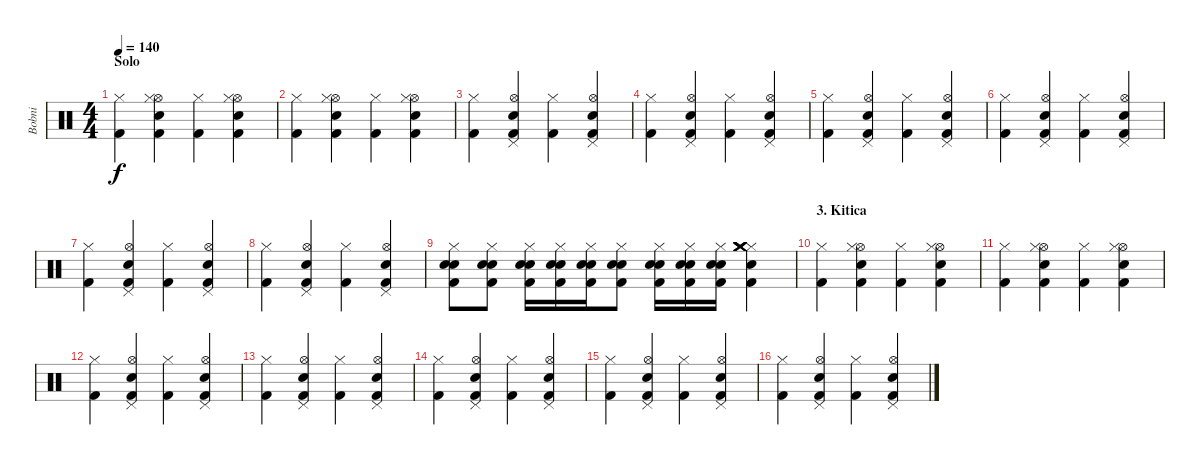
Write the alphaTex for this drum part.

\track ("Bobni" "Bobni") {instrument percussion}
\staff {score}
\articulation defaults
\ts (4 4)
\section ("" "Solo")
\tempo 140
\clef neutral
\ks c
("Hi-Hat (closed)" "Kick (hit) 2").4{dy f} ("Hi-Hat (open)" "Snare (hit) 2" "Hi-Hat (closed)" "Kick (hit) 2").4 ("Hi-Hat (closed)" "Kick (hit) 2").4 ("Hi-Hat (open)" "Snare (hit) 2" "Hi-Hat (closed)" "Kick (hit) 2").4 |
("Hi-Hat (closed)" "Kick (hit) 2").4 ("Hi-Hat (open)" "Snare (hit) 2" "Hi-Hat (closed)" "Kick (hit) 2").4 ("Hi-Hat (closed)" "Kick (hit) 2").4 ("Hi-Hat (open)" "Snare (hit) 2" "Hi-Hat (closed)" "Kick (hit) 2").4 |
("Hi-Hat (closed)" "Kick (hit) 2").4 ("Hi-Hat (open)" "Snare (hit) 2" "Pedal Hi-Hat (hit)" "Kick (hit) 2").4 ("Hi-Hat (closed)" "Kick (hit) 2").4 ("Hi-Hat (open)" "Snare (hit) 2" "Pedal Hi-Hat (hit)" "Kick (hit) 2").4 |
("Hi-Hat (closed)" "Kick (hit) 2").4 ("Hi-Hat (open)" "Snare (hit) 2" "Pedal Hi-Hat (hit)" "Kick (hit) 2").4 ("Hi-Hat (closed)" "Kick (hit) 2").4 ("Hi-Hat (open)" "Snare (hit) 2" "Pedal Hi-Hat (hit)" "Kick (hit) 2").4 |
("Hi-Hat (closed)" "Kick (hit) 2").4 ("Hi-Hat (open)" "Snare (hit) 2" "Pedal Hi-Hat (hit)" "Kick (hit) 2").4 ("Hi-Hat (closed)" "Kick (hit) 2").4 ("Hi-Hat (open)" "Snare (hit) 2" "Pedal Hi-Hat (hit)" "Kick (hit) 2").4 |
("Hi-Hat (closed)" "Kick (hit) 2").4 ("Hi-Hat (open)" "Snare (hit) 2" "Pedal Hi-Hat (hit)" "Kick (hit) 2").4 ("Hi-Hat (closed)" "Kick (hit) 2").4 ("Hi-Hat (open)" "Snare (hit) 2" "Pedal Hi-Hat (hit)" "Kick (hit) 2").4 |
("Hi-Hat (closed)" "Kick (hit) 2").4 ("Hi-Hat (open)" "Snare (hit) 2" "Pedal Hi-Hat (hit)" "Kick (hit) 2").4 ("Hi-Hat (closed)" "Kick (hit) 2").4 ("Hi-Hat (open)" "Snare (hit) 2" "Pedal Hi-Hat (hit)" "Kick (hit) 2").4 |
("Hi-Hat (closed)" "Kick (hit) 2").4 ("Hi-Hat (open)" "Snare (hit) 2" "Pedal Hi-Hat (hit)" "Kick (hit) 2").4 ("Hi-Hat (closed)" "Kick (hit) 2").4 ("Hi-Hat (open)" "Snare (hit) 2" "Pedal Hi-Hat (hit)" "Kick (hit) 2").4 |
("Hi-Hat (closed)" "Snare (hit) 2" "Snare (hit) 2" "Kick (hit) 2").8 ("Hi-Hat (closed)" "Snare (hit) 2" "Snare (hit) 2" "Kick (hit) 2").8 ("Hi-Hat (closed)" "Snare (hit) 2" "Snare (hit) 2" "Kick (hit) 2").16 ("Hi-Hat (closed)" "Snare (hit) 2" "Snare (hit) 2" "Kick (hit) 2").16 ("Hi-Hat (closed)" "Snare (hit) 2" "Snare (hit) 2" "Kick (hit) 2").16 ("Hi-Hat (closed)" "Snare (hit) 2" "Snare (hit) 2" "Kick (hit) 2").8 ("Hi-Hat (closed)" "Snare (hit) 2" "Snare (hit) 2" "Kick (hit) 2").16 ("Hi-Hat (closed)" "Snare (hit) 2" "Snare (hit) 2" "Kick (hit) 2").16 ("Hi-Hat (closed)" "Snare (hit) 2" "Snare (hit) 2" "Kick (hit) 2").16 ("Hi-Hat (closed)" "Crash medium (hit)" "Snare (hit) 2" "Crash medium (hit)" "Crash medium (hit)" "Kick (hit) 2").4 |
\section ("" "3. Kitica")
("Hi-Hat (closed)" "Kick (hit) 2").4 ("Hi-Hat (open)" "Snare (hit) 2" "Hi-Hat (closed)" "Kick (hit) 2").4 ("Hi-Hat (closed)" "Kick (hit) 2").4 ("Hi-Hat (open)" "Snare (hit) 2" "Hi-Hat (closed)" "Kick (hit) 2").4 |
("Hi-Hat (closed)" "Kick (hit) 2").4 ("Hi-Hat (open)" "Snare (hit) 2" "Hi-Hat (closed)" "Kick (hit) 2").4 ("Hi-Hat (closed)" "Kick (hit) 2").4 ("Hi-Hat (open)" "Snare (hit) 2" "Hi-Hat (closed)" "Kick (hit) 2").4 |
("Hi-Hat (closed)" "Kick (hit) 2").4 ("Hi-Hat (open)" "Snare (hit) 2" "Pedal Hi-Hat (hit)" "Kick (hit) 2").4 ("Hi-Hat (closed)" "Kick (hit) 2").4 ("Hi-Hat (open)" "Snare (hit) 2" "Pedal Hi-Hat (hit)" "Kick (hit) 2").4 |
("Hi-Hat (closed)" "Kick (hit) 2").4 ("Hi-Hat (open)" "Snare (hit) 2" "Pedal Hi-Hat (hit)" "Kick (hit) 2").4 ("Hi-Hat (closed)" "Kick (hit) 2").4 ("Hi-Hat (open)" "Snare (hit) 2" "Pedal Hi-Hat (hit)" "Kick (hit) 2").4 |
("Hi-Hat (closed)" "Kick (hit) 2").4 ("Hi-Hat (open)" "Snare (hit) 2" "Pedal Hi-Hat (hit)" "Kick (hit) 2").4 ("Hi-Hat (closed)" "Kick (hit) 2").4 ("Hi-Hat (open)" "Snare (hit) 2" "Pedal Hi-Hat (hit)" "Kick (hit) 2").4 |
("Hi-Hat (closed)" "Kick (hit) 2").4 ("Hi-Hat (open)" "Snare (hit) 2" "Pedal Hi-Hat (hit)" "Kick (hit) 2").4 ("Hi-Hat (closed)" "Kick (hit) 2").4 ("Hi-Hat (open)" "Snare (hit) 2" "Pedal Hi-Hat (hit)" "Kick (hit) 2").4 |
("Hi-Hat (closed)" "Kick (hit) 2").4 ("Hi-Hat (open)" "Snare (hit) 2" "Pedal Hi-Hat (hit)" "Kick (hit) 2").4 ("Hi-Hat (closed)" "Kick (hit) 2").4 ("Hi-Hat (open)" "Snare (hit) 2" "Pedal Hi-Hat (hit)" "Kick (hit) 2").4
